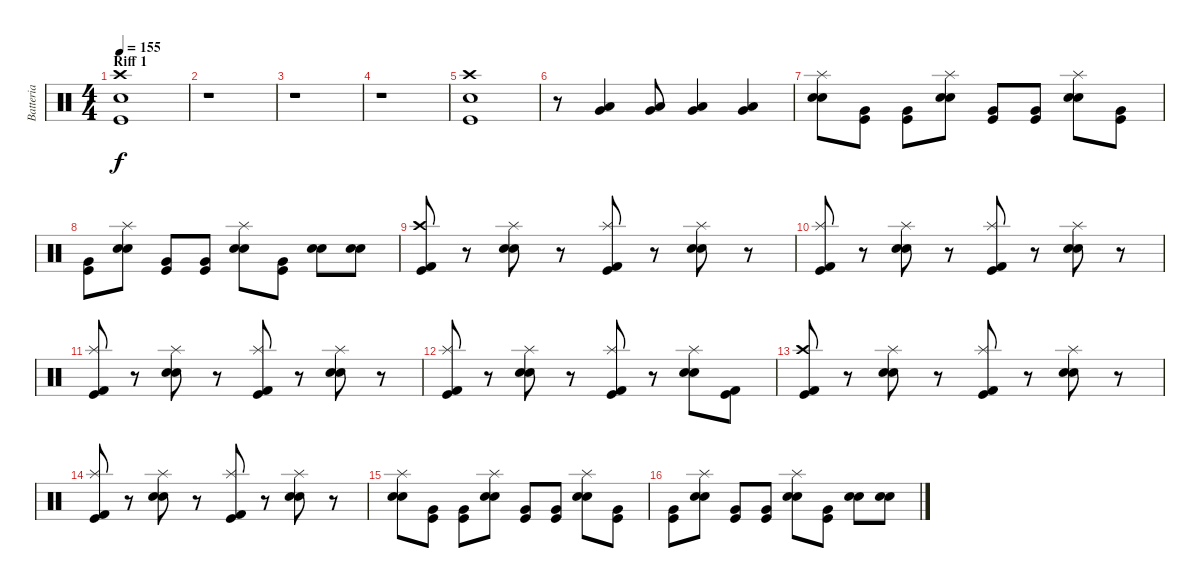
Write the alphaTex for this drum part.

\track ("Batteria" "Batteria") {instrument percussion}
\staff {score}
\articulation defaults
\ts (4 4)
\section ("" "Riff 1")
\tempo 155
\clef neutral
\ks c
("Kick (hit)" "Snare (hit) 2" "Crash high (hit)").1{dy f} |
r.1 |
r.1 |
r.1 |
("Kick (hit)" "Snare (hit) 2" "Crash high (hit)").1 |
r.8 ("Low Tom (hit)" "Very Low Tom (hit)").4 ("Low Tom (hit)" "Very Low Tom (hit)").8 ("Low Tom (hit)" "Very Low Tom (hit)").4 ("Low Tom (hit)" "Very Low Tom (hit)").4 |
("Electric Snare (hit)" "Snare (hit) 2" "Splash (hit)").8 ("Kick (hit)" "Very Low Tom (hit)").8 ("Kick (hit)" "Very Low Tom (hit)").8 ("Electric Snare (hit)" "Snare (hit) 2" "Splash (hit)").8 ("Kick (hit)" "Very Low Tom (hit)").8 ("Kick (hit)" "Very Low Tom (hit)").8 ("Electric Snare (hit)" "Snare (hit) 2" "Splash (hit)").8 ("Kick (hit)" "Very Low Tom (hit)").8 |
("Kick (hit)" "Very Low Tom (hit)").8 ("Electric Snare (hit)" "Snare (hit) 2" "Splash (hit)").8 ("Kick (hit)" "Very Low Tom (hit)").8 ("Kick (hit)" "Very Low Tom (hit)").8 ("Electric Snare (hit)" "Snare (hit) 2" "Splash (hit)").8 ("Kick (hit)" "Very Low Tom (hit)").8 ("Electric Snare (hit)" "Snare (hit) 2").8 ("Electric Snare (hit)" "Snare (hit) 2").8 |
("Kick (hit)" "Kick (hit) 2" "Crash high (hit)").8 r.8 ("Electric Snare (hit)" "Snare (hit) 2" "Splash (hit)").8 r.8 ("Kick (hit)" "Kick (hit) 2" "Splash (hit)").8 r.8 ("Electric Snare (hit)" "Snare (hit) 2" "Splash (hit)").8 r.8 |
("Kick (hit)" "Kick (hit) 2" "Splash (hit)").8 r.8 ("Electric Snare (hit)" "Snare (hit) 2" "Splash (hit)").8 r.8 ("Kick (hit)" "Kick (hit) 2" "Splash (hit)").8 r.8 ("Electric Snare (hit)" "Snare (hit) 2" "Splash (hit)").8 r.8 |
("Kick (hit)" "Kick (hit) 2" "Splash (hit)").8 r.8 ("Electric Snare (hit)" "Snare (hit) 2" "Splash (hit)").8 r.8 ("Kick (hit)" "Kick (hit) 2" "Splash (hit)").8 r.8 ("Electric Snare (hit)" "Snare (hit) 2" "Splash (hit)").8 r.8 |
("Kick (hit)" "Kick (hit) 2" "Splash (hit)").8 r.8 ("Electric Snare (hit)" "Snare (hit) 2" "Splash (hit)").8 r.8 ("Kick (hit)" "Kick (hit) 2" "Splash (hit)").8 r.8 ("Electric Snare (hit)" "Snare (hit) 2" "Splash (hit)").8 ("Kick (hit)" "Kick (hit) 2").8 |
("Kick (hit)" "Kick (hit) 2" "Crash high (hit)").8 r.8 ("Electric Snare (hit)" "Snare (hit) 2" "Splash (hit)").8 r.8 ("Kick (hit)" "Kick (hit) 2" "Splash (hit)").8 r.8 ("Electric Snare (hit)" "Snare (hit) 2" "Splash (hit)").8 r.8 |
("Kick (hit)" "Kick (hit) 2" "Splash (hit)").8 r.8 ("Electric Snare (hit)" "Snare (hit) 2" "Splash (hit)").8 r.8 ("Kick (hit)" "Kick (hit) 2" "Splash (hit)").8 r.8 ("Electric Snare (hit)" "Snare (hit) 2" "Splash (hit)").8 r.8 |
("Electric Snare (hit)" "Snare (hit) 2" "Splash (hit)").8 ("Kick (hit)" "Very Low Tom (hit)").8 ("Kick (hit)" "Very Low Tom (hit)").8 ("Electric Snare (hit)" "Snare (hit) 2" "Splash (hit)").8 ("Kick (hit)" "Very Low Tom (hit)").8 ("Kick (hit)" "Very Low Tom (hit)").8 ("Electric Snare (hit)" "Snare (hit) 2" "Splash (hit)").8 ("Kick (hit)" "Very Low Tom (hit)").8 |
("Kick (hit)" "Very Low Tom (hit)").8 ("Electric Snare (hit)" "Snare (hit) 2" "Splash (hit)").8 ("Kick (hit)" "Very Low Tom (hit)").8 ("Kick (hit)" "Very Low Tom (hit)").8 ("Electric Snare (hit)" "Snare (hit) 2" "Splash (hit)").8 ("Kick (hit)" "Very Low Tom (hit)").8 ("Electric Snare (hit)" "Snare (hit) 2").8 ("Electric Snare (hit)" "Snare (hit) 2").8
